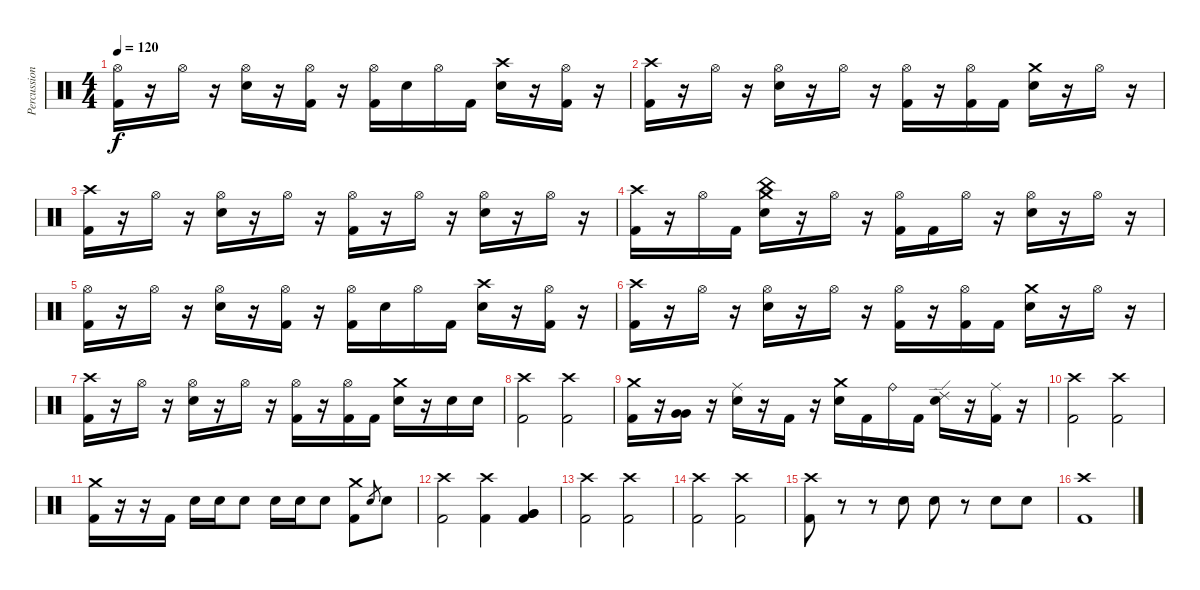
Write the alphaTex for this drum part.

\track ("Percussion" "Percussion") {instrument percussion}
\staff {score}
\articulation defaults
\ts (4 4)
\tempo 120
\clef neutral
\ks c
("Hi-Hat (open)" "Kick (hit) 2").16{dy f} r.16 "Hi-Hat (open)".16 r.16 ("Hi-Hat (open)" "Snare (hit) 2").16 r.16 ("Hi-Hat (open)" "Kick (hit) 2").16 r.16 ("Hi-Hat (open)" "Kick (hit) 2").16 "Snare (hit) 2".16 "Hi-Hat (open)".16 "Kick (hit) 2".16 ("Crash high (hit)" "Snare (hit) 2").16 r.16 ("Hi-Hat (open)" "Kick (hit) 2").16 r.16 |
("Crash high (hit)" "Kick (hit) 2").16 r.16 "Hi-Hat (open)".16 r.16 ("Hi-Hat (open)" "Snare (hit) 2").16 r.16 "Hi-Hat (open)".16 r.16 ("Hi-Hat (open)" "Kick (hit) 2").16 r.16 ("Hi-Hat (open)" "Kick (hit) 2").16 "Kick (hit) 2".16 ("Crash medium (hit)" "Snare (hit) 2").16 r.16 "Hi-Hat (open)".16 r.16 |
("Crash high (hit)" "Kick (hit) 2").16 r.16 "Hi-Hat (open)".16 r.16 ("Hi-Hat (open)" "Snare (hit) 2").16 r.16 "Hi-Hat (open)".16 r.16 ("Hi-Hat (open)" "Kick (hit) 2").16 r.16 "Hi-Hat (open)".16 r.16 ("Hi-Hat (open)" "Snare (hit) 2").16 r.16 "Hi-Hat (open)".16 r.16 |
("Crash high (hit)" "Kick (hit) 2").16 r.16 "Hi-Hat (open)".16 "Kick (hit) 2".16 ("Crash medium (hit)" "China (hit)" "Snare (hit) 2").16 r.16 "Hi-Hat (open)".16 r.16 ("Hi-Hat (open)" "Kick (hit) 2").16 "Kick (hit) 2".16 "Hi-Hat (open)".16 r.16 ("Hi-Hat (open)" "Snare (hit) 2").16 r.16 "Hi-Hat (open)".16 r.16 |
("Hi-Hat (open)" "Kick (hit) 2").16 r.16 "Hi-Hat (open)".16 r.16 ("Hi-Hat (open)" "Snare (hit) 2").16 r.16 ("Hi-Hat (open)" "Kick (hit) 2").16 r.16 ("Hi-Hat (open)" "Kick (hit) 2").16 "Snare (hit) 2".16 "Hi-Hat (open)".16 "Kick (hit) 2".16 ("Crash high (hit)" "Snare (hit) 2").16 r.16 ("Hi-Hat (open)" "Kick (hit) 2").16 r.16 |
("Crash high (hit)" "Kick (hit) 2").16 r.16 "Hi-Hat (open)".16 r.16 ("Hi-Hat (open)" "Snare (hit) 2").16 r.16 "Hi-Hat (open)".16 r.16 ("Hi-Hat (open)" "Kick (hit) 2").16 r.16 ("Hi-Hat (open)" "Kick (hit) 2").16 "Kick (hit) 2".16 ("Crash medium (hit)" "Snare (hit) 2").16 r.16 "Hi-Hat (open)".16 r.16 |
("Crash high (hit)" "Kick (hit) 2").16 r.16 "Hi-Hat (open)".16 r.16 ("Hi-Hat (open)" "Snare (hit) 2").16 r.16 "Hi-Hat (open)".16 r.16 ("Hi-Hat (open)" "Kick (hit) 2").16 r.16 ("Hi-Hat (open)" "Kick (hit) 2").16 "Kick (hit) 2".16 ("Crash medium (hit)" "Snare (hit) 2").16 r.16 "Snare (hit) 2".16 "Snare (hit) 2".16 |
("Crash high (hit)" "Kick (hit) 2").2 ("Crash high (hit)" "Kick (hit) 2").2 |
("Crash medium (hit)" "Kick (hit) 2").16 r.16 ("Very Low Tom (hit)" "Very Low Tom (hit)").16 r.16 ("Ride (middle)" "Snare (hit) 2").16 r.16 "Kick (hit) 2".16 r.16 ("Crash medium (hit)" "Snare (hit) 2").16 "Kick (hit) 2".16 "Ride (bell)".16 "Kick (hit) 2".16 ("Ride (edge) 2" "Snare (hit) 2").16 r.16 ("Ride (middle)" "Kick (hit) 2").16 r.16 |
("Crash high (hit)" "Kick (hit) 2").2 ("Crash high (hit)" "Kick (hit) 2").2 |
("Crash medium (hit)" "Kick (hit) 2").16 r.16 r.16 "Kick (hit) 2".16 "Snare (hit) 2".16 "Snare (hit) 2".16 "Snare (hit) 2".8 "Snare (hit) 2".16 "Snare (hit) 2".16 "Snare (hit) 2".8 ("Crash medium (hit)" "Kick (hit) 2").8 "Snare (hit) 2".8{gr} "Snare (hit) 2".8 |
("Crash high (hit)" "Kick (hit) 2").2 ("Crash high (hit)" "Kick (hit) 2").4 ("Very Low Tom (hit)" "Very Low Tom (hit)" "Kick (hit) 2").4 |
("Crash high (hit)" "Kick (hit) 2").2 ("Crash high (hit)" "Kick (hit) 2").2 |
("Crash high (hit)" "Kick (hit) 2").2 ("Crash high (hit)" "Kick (hit) 2").2 |
("Crash high (hit)" "Kick (hit) 2").8 r.8 r.8 "Snare (hit) 2".8 "Snare (hit) 2".8 r.8 "Snare (hit) 2".8 "Snare (hit) 2".8 |
("Crash high (hit)" "Kick (hit) 2").1
